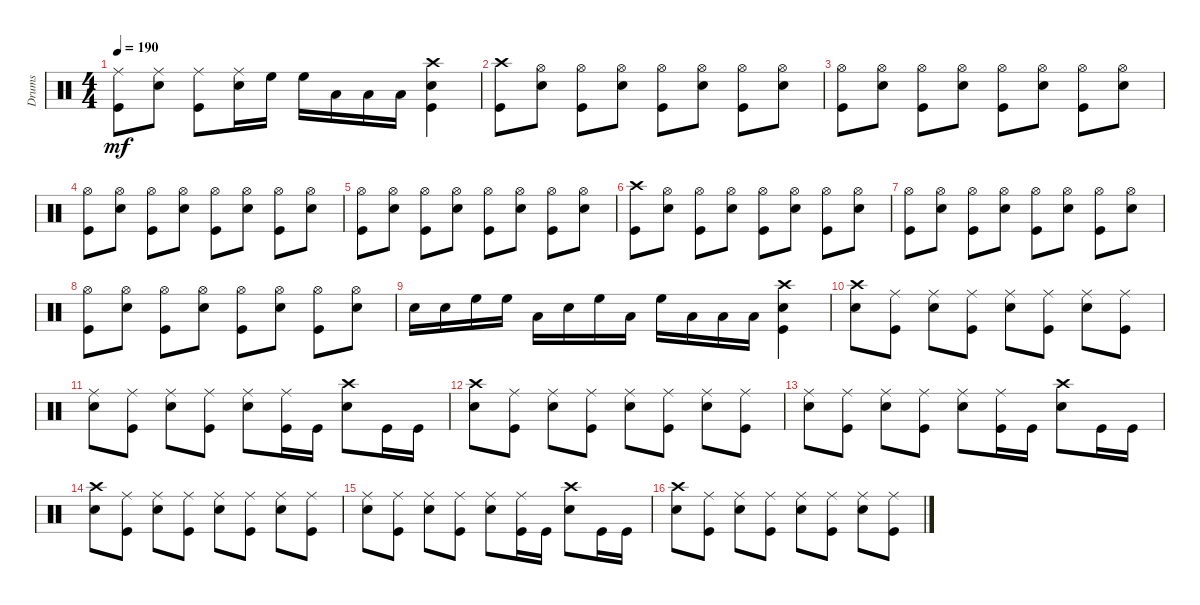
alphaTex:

\track ("Drums" "Drums") {instrument percussion}
\staff {score}
\articulation defaults
\ts (4 4)
\tempo 190
\clef neutral
\ks c
("Ride (middle)" "Kick (hit)").8{dy mf} ("Snare (hit) 2" "Ride (middle)").8 ("Ride (middle)" "Kick (hit)").8 ("Snare (hit) 2" "Ride (middle)").16 "High Floor Tom (hit)".16 "High Floor Tom (hit)".16 "Low Tom (hit)".16 "Low Tom (hit)".16 "Low Floor Tom (hit)".16 ("Kick (hit)" "Snare (hit) 2" "Crash high (hit)").4 |
("Kick (hit)" "Crash high (hit)").8 ("Snare (hit) 2" "Hi-Hat (open)").8 ("Kick (hit)" "Hi-Hat (open)").8 ("Snare (hit) 2" "Hi-Hat (open)").8 ("Kick (hit)" "Hi-Hat (open)").8 ("Snare (hit) 2" "Hi-Hat (open)").8 ("Kick (hit)" "Hi-Hat (open)").8 ("Snare (hit) 2" "Hi-Hat (open)").8 |
("Hi-Hat (open)" "Kick (hit)").8 ("Snare (hit) 2" "Hi-Hat (open)").8 ("Hi-Hat (open)" "Kick (hit)").8 ("Snare (hit) 2" "Hi-Hat (open)").8 ("Hi-Hat (open)" "Kick (hit)").8 ("Snare (hit) 2" "Hi-Hat (open)").8 ("Hi-Hat (open)" "Kick (hit)").8 ("Snare (hit) 2" "Hi-Hat (open)").8 |
("Kick (hit)" "Hi-Hat (open)").8 ("Snare (hit) 2" "Hi-Hat (open)").8 ("Kick (hit)" "Hi-Hat (open)").8 ("Snare (hit) 2" "Hi-Hat (open)").8 ("Kick (hit)" "Hi-Hat (open)").8 ("Snare (hit) 2" "Hi-Hat (open)").8 ("Kick (hit)" "Hi-Hat (open)").8 ("Snare (hit) 2" "Hi-Hat (open)").8 |
("Kick (hit)" "Hi-Hat (open)").8 ("Snare (hit) 2" "Hi-Hat (open)").8 ("Kick (hit)" "Hi-Hat (open)").8 ("Snare (hit) 2" "Hi-Hat (open)").8 ("Kick (hit)" "Hi-Hat (open)").8 ("Snare (hit) 2" "Hi-Hat (open)").8 ("Kick (hit)" "Hi-Hat (open)").8 ("Snare (hit) 2" "Hi-Hat (open)").8 |
("Crash high (hit)" "Kick (hit)").8 ("Snare (hit) 2" "Hi-Hat (open)").8 ("Hi-Hat (open)" "Kick (hit)").8 ("Snare (hit) 2" "Hi-Hat (open)").8 ("Hi-Hat (open)" "Kick (hit)").8 ("Snare (hit) 2" "Hi-Hat (open)").8 ("Hi-Hat (open)" "Kick (hit)").8 ("Snare (hit) 2" "Hi-Hat (open)").8 |
("Kick (hit)" "Hi-Hat (open)").8 ("Snare (hit) 2" "Hi-Hat (open)").8 ("Kick (hit)" "Hi-Hat (open)").8 ("Snare (hit) 2" "Hi-Hat (open)").8 ("Kick (hit)" "Hi-Hat (open)").8 ("Snare (hit) 2" "Hi-Hat (open)").8 ("Kick (hit)" "Hi-Hat (open)").8 ("Snare (hit) 2" "Hi-Hat (open)").8 |
("Hi-Hat (open)" "Kick (hit)").8 ("Snare (hit) 2" "Hi-Hat (open)").8 ("Hi-Hat (open)" "Kick (hit)").8 ("Snare (hit) 2" "Hi-Hat (open)").8 ("Hi-Hat (open)" "Kick (hit)").8 ("Snare (hit) 2" "Hi-Hat (open)").8 ("Hi-Hat (open)" "Kick (hit)").8 ("Snare (hit) 2" "Hi-Hat (open)").8 |
"Snare (hit) 2".16 "Snare (hit) 2".16 "High Floor Tom (hit)".16 "High Floor Tom (hit)".16 "Low Tom (hit)".16 "Snare (hit) 2".16 "High Floor Tom (hit)".16 "Low Tom (hit)".16 "High Floor Tom (hit)".16 "Low Tom (hit)".16 "Low Floor Tom (hit)".16 "Low Floor Tom (hit)".16 ("Kick (hit)" "Snare (hit) 2" "Crash high (hit)").4 |
("Snare (hit) 2" "Crash high (hit)").8 ("Kick (hit)" "Ride (middle)").8 ("Snare (hit) 2" "Ride (middle)").8 ("Kick (hit)" "Ride (middle)").8 ("Snare (hit) 2" "Ride (middle)").8 ("Kick (hit)" "Ride (middle)").8 ("Snare (hit) 2" "Ride (middle)").8 ("Kick (hit)" "Ride (middle)").8 |
("Snare (hit) 2" "Ride (middle)").8 ("Kick (hit)" "Ride (middle)").8 ("Snare (hit) 2" "Ride (middle)").8 ("Kick (hit)" "Ride (middle)").8 ("Snare (hit) 2" "Ride (middle)").8 ("Kick (hit)" "Ride (middle)").16 "Kick (hit)".16 ("Snare (hit) 2" "Crash high (hit)").8 "Kick (hit)".16 "Kick (hit)".16 |
("Snare (hit) 2" "Crash high (hit)").8 ("Ride (middle)" "Kick (hit)").8 ("Snare (hit) 2" "Ride (middle)").8 ("Ride (middle)" "Kick (hit)").8 ("Snare (hit) 2" "Ride (middle)").8 ("Ride (middle)" "Kick (hit)").8 ("Snare (hit) 2" "Ride (middle)").8 ("Ride (middle)" "Kick (hit)").8 |
("Snare (hit) 2" "Ride (middle)").8 ("Ride (middle)" "Kick (hit)").8 ("Snare (hit) 2" "Ride (middle)").8 ("Ride (middle)" "Kick (hit)").8 ("Snare (hit) 2" "Ride (middle)").8 ("Ride (middle)" "Kick (hit)").16 "Kick (hit)".16 ("Snare (hit) 2" "Crash high (hit)").8 "Kick (hit)".16 "Kick (hit)".16 |
("Snare (hit) 2" "Crash high (hit)").8 ("Ride (middle)" "Kick (hit)").8 ("Snare (hit) 2" "Ride (middle)").8 ("Ride (middle)" "Kick (hit)").8 ("Snare (hit) 2" "Ride (middle)").8 ("Ride (middle)" "Kick (hit)").8 ("Snare (hit) 2" "Ride (middle)").8 ("Ride (middle)" "Kick (hit)").8 |
("Snare (hit) 2" "Ride (middle)").8 ("Ride (middle)" "Kick (hit)").8 ("Snare (hit) 2" "Ride (middle)").8 ("Ride (middle)" "Kick (hit)").8 ("Snare (hit) 2" "Ride (middle)").8 ("Ride (middle)" "Kick (hit)").16 "Kick (hit)".16 ("Snare (hit) 2" "Crash high (hit)").8 "Kick (hit)".16 "Kick (hit)".16 |
("Snare (hit) 2" "Crash high (hit)").8 ("Kick (hit)" "Ride (middle)").8 ("Snare (hit) 2" "Ride (middle)").8 ("Kick (hit)" "Ride (middle)").8 ("Snare (hit) 2" "Ride (middle)").8 ("Kick (hit)" "Ride (middle)").8 ("Snare (hit) 2" "Ride (middle)").8 ("Kick (hit)" "Ride (middle)").8
